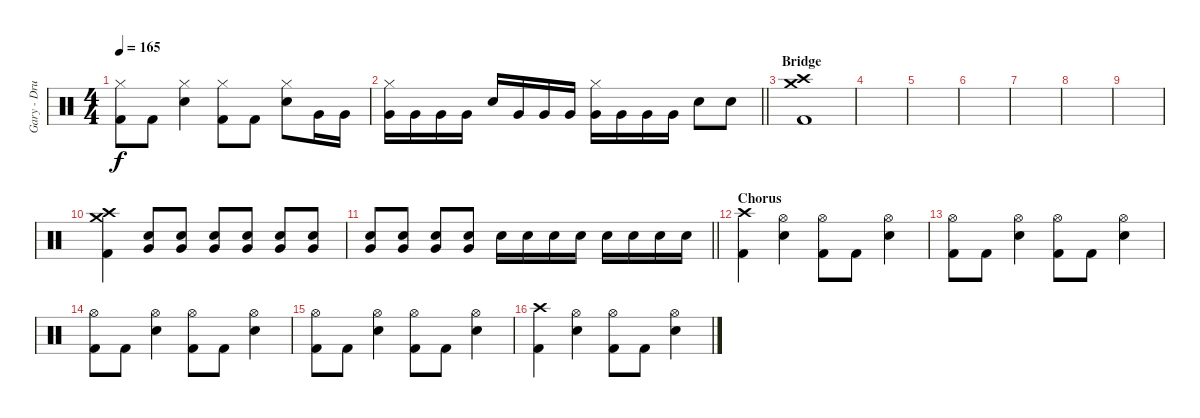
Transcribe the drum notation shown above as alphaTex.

\track ("Gary - Drums" "Gary - Dru") {instrument percussion}
\staff {score}
\articulation defaults
\ts (4 4)
\tempo 165
\clef neutral
\ks c
("Hi-Hat (closed)" "Kick (hit) 2").8{dy f} "Kick (hit) 2".8 ("Hi-Hat (closed)" "Snare (hit) 2").4 ("Hi-Hat (closed)" "Kick (hit) 2").8 "Kick (hit) 2".8 ("Hi-Hat (closed)" "Snare (hit) 2").8 "Very Low Tom (hit)".16 "Very Low Tom (hit)".16 |
\barLineRight lightlight
("Hi-Hat (closed)" "Very Low Tom (hit)").16 "Very Low Tom (hit)".16 "Very Low Tom (hit)".16 "Very Low Tom (hit)".16 "Snare (hit) 2".16 "Very Low Tom (hit)".16 "Very Low Tom (hit)".16 "Very Low Tom (hit)".16 ("Hi-Hat (closed)" "Very Low Tom (hit)").16 "Very Low Tom (hit)".16 "Very Low Tom (hit)".16 "Very Low Tom (hit)".16 "Snare (hit) 2".8 "Snare (hit) 2".8 |
\section ("" "Bridge")
("Crash high (hit)" "Crash medium (hit)" "Kick (hit) 2").1 |
|
|
|
|
|
|
("Crash high (hit)" "Crash medium (hit)" "Kick (hit) 2").4{volume 12} ("Snare (hit) 2" "Very Low Tom (hit)").8 ("Snare (hit) 2" "Very Low Tom (hit)").8 ("Snare (hit) 2" "Very Low Tom (hit)").8 ("Snare (hit) 2" "Very Low Tom (hit)").8 ("Snare (hit) 2" "Very Low Tom (hit)").8 ("Snare (hit) 2" "Very Low Tom (hit)").8 |
\barLineRight lightlight
("Snare (hit) 2" "Very Low Tom (hit)").8 ("Snare (hit) 2" "Very Low Tom (hit)").8 ("Snare (hit) 2" "Very Low Tom (hit)").8 ("Snare (hit) 2" "Very Low Tom (hit)").8 "Snare (hit) 2".16 "Snare (hit) 2".16 "Snare (hit) 2".16 "Snare (hit) 2".16 "Snare (hit) 2".16 "Snare (hit) 2".16 "Snare (hit) 2".16 "Snare (hit) 2".16 |
\section ("" "Chorus")
("Crash high (hit)" "Kick (hit) 2").4 ("Hi-Hat (open)" "Snare (hit) 2").4 ("Hi-Hat (open)" "Kick (hit) 2").8 "Kick (hit) 2".8 ("Hi-Hat (open)" "Snare (hit) 2").4 |
("Hi-Hat (open)" "Kick (hit) 2").8 "Kick (hit) 2".8 ("Hi-Hat (open)" "Snare (hit) 2").4 ("Hi-Hat (open)" "Kick (hit) 2").8 "Kick (hit) 2".8 ("Hi-Hat (open)" "Snare (hit) 2").4 |
("Hi-Hat (open)" "Kick (hit) 2").8 "Kick (hit) 2".8 ("Hi-Hat (open)" "Snare (hit) 2").4 ("Hi-Hat (open)" "Kick (hit) 2").8 "Kick (hit) 2".8 ("Hi-Hat (open)" "Snare (hit) 2").4 |
("Hi-Hat (open)" "Kick (hit) 2").8 "Kick (hit) 2".8 ("Hi-Hat (open)" "Snare (hit) 2").4 ("Hi-Hat (open)" "Kick (hit) 2").8 "Kick (hit) 2".8 ("Hi-Hat (open)" "Snare (hit) 2").4 |
("Crash high (hit)" "Kick (hit) 2").4 ("Hi-Hat (open)" "Snare (hit) 2").4 ("Hi-Hat (open)" "Kick (hit) 2").8 "Kick (hit) 2".8 ("Hi-Hat (open)" "Snare (hit) 2").4
